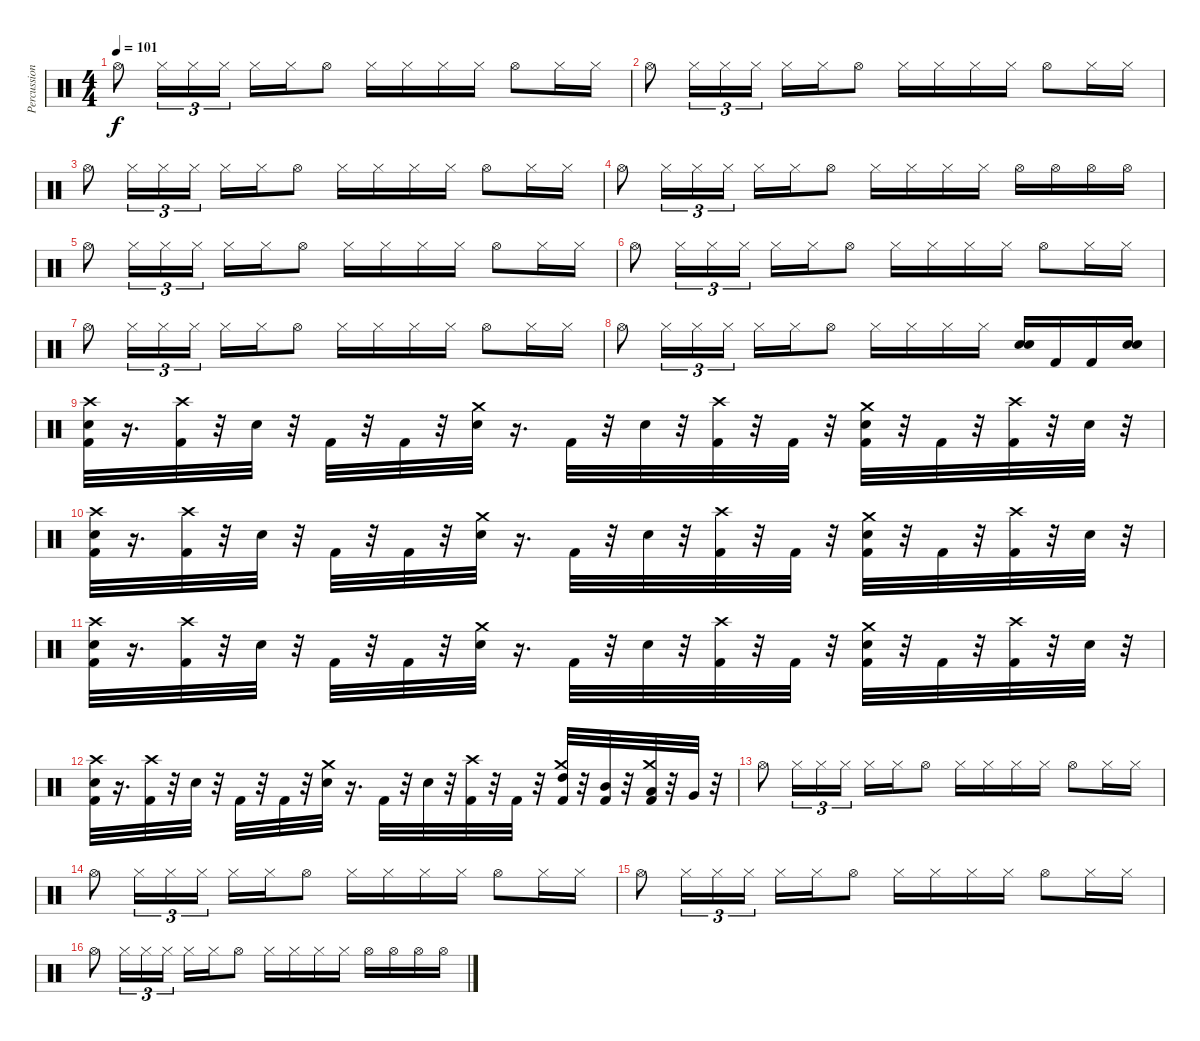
\track ("Percussion" "Percussion") {instrument percussion}
\staff {score}
\articulation defaults
\ts (4 4)
\tempo 101
\clef neutral
\ks c "Hi-Hat (open)".8{dy f} "Hi-Hat (closed)".16{tu (3 2)} "Hi-Hat (closed)".16{tu (3 2)} "Hi-Hat (closed)".16{tu (3 2)} "Hi-Hat (closed)".16 "Hi-Hat (closed)".16 "Hi-Hat (open)".8 "Hi-Hat (closed)".16 "Hi-Hat (closed)".16 "Hi-Hat (closed)".16 "Hi-Hat (closed)".16 "Hi-Hat (open)".8 "Hi-Hat (closed)".16 "Hi-Hat (closed)".16
|
"Hi-Hat (open)".8 "Hi-Hat (closed)".16{tu (3 2)} "Hi-Hat (closed)".16{tu (3 2)} "Hi-Hat (closed)".16{tu (3 2)} "Hi-Hat (closed)".16 "Hi-Hat (closed)".16 "Hi-Hat (open)".8 "Hi-Hat (closed)".16 "Hi-Hat (closed)".16 "Hi-Hat (closed)".16 "Hi-Hat (closed)".16 "Hi-Hat (open)".8 "Hi-Hat (closed)".16 "Hi-Hat (closed)".16 |
"Hi-Hat (open)".8 "Hi-Hat (closed)".16{tu (3 2)} "Hi-Hat (closed)".16{tu (3 2)} "Hi-Hat (closed)".16{tu (3 2)} "Hi-Hat (closed)".16 "Hi-Hat (closed)".16 "Hi-Hat (open)".8 "Hi-Hat (closed)".16 "Hi-Hat (closed)".16 "Hi-Hat (closed)".16 "Hi-Hat (closed)".16 "Hi-Hat (open)".8 "Hi-Hat (closed)".16 "Hi-Hat (closed)".16 |
"Hi-Hat (open)".8 "Hi-Hat (closed)".16{tu (3 2)} "Hi-Hat (closed)".16{tu (3 2)} "Hi-Hat (closed)".16{tu (3 2)} "Hi-Hat (closed)".16 "Hi-Hat (closed)".16 "Hi-Hat (open)".8 "Hi-Hat (closed)".16 "Hi-Hat (closed)".16 "Hi-Hat (closed)".16 "Hi-Hat (closed)".16 "Hi-Hat (open)".16 "Hi-Hat (open)".16 "Hi-Hat (open)".16 "Hi-Hat (open)".16 |
"Hi-Hat (open)".8 "Hi-Hat (closed)".16{tu (3 2)} "Hi-Hat (closed)".16{tu (3 2)} "Hi-Hat (closed)".16{tu (3 2)} "Hi-Hat (closed)".16 "Hi-Hat (closed)".16 "Hi-Hat (open)".8 "Hi-Hat (closed)".16 "Hi-Hat (closed)".16 "Hi-Hat (closed)".16 "Hi-Hat (closed)".16 "Hi-Hat (open)".8 "Hi-Hat (closed)".16 "Hi-Hat (closed)".16 |
"Hi-Hat (open)".8 "Hi-Hat (closed)".16{tu (3 2)} "Hi-Hat (closed)".16{tu (3 2)} "Hi-Hat (closed)".16{tu (3 2)} "Hi-Hat (closed)".16 "Hi-Hat (closed)".16 "Hi-Hat (open)".8 "Hi-Hat (closed)".16 "Hi-Hat (closed)".16 "Hi-Hat (closed)".16 "Hi-Hat (closed)".16 "Hi-Hat (open)".8 "Hi-Hat (closed)".16 "Hi-Hat (closed)".16 |
"Hi-Hat (open)".8 "Hi-Hat (closed)".16{tu (3 2)} "Hi-Hat (closed)".16{tu (3 2)} "Hi-Hat (closed)".16{tu (3 2)} "Hi-Hat (closed)".16 "Hi-Hat (closed)".16 "Hi-Hat (open)".8 "Hi-Hat (closed)".16 "Hi-Hat (closed)".16 "Hi-Hat (closed)".16 "Hi-Hat (closed)".16 "Hi-Hat (open)".8 "Hi-Hat (closed)".16 "Hi-Hat (closed)".16 |
"Hi-Hat (open)".8 "Hi-Hat (closed)".16{tu (3 2)} "Hi-Hat (closed)".16{tu (3 2)} "Hi-Hat (closed)".16{tu (3 2)} "Hi-Hat (closed)".16 "Hi-Hat (closed)".16 "Hi-Hat (open)".8 "Hi-Hat (closed)".16 "Hi-Hat (closed)".16 "Hi-Hat (closed)".16 "Hi-Hat (closed)".16 ("Snare (hit) 2" "Electric Snare (hit)").16 "Kick (hit) 2".16 "Kick (hit) 2".16 ("Snare (hit) 2" "Electric Snare (hit)").16 |
("Crash high (hit)" "Snare (hit) 2" "Kick (hit) 2").32 r.16{d} ("Crash high (hit)" "Kick (hit) 2").32 r.32 "Snare (hit) 2".32 r.32 "Kick (hit) 2".32 r.32 "Kick (hit) 2".32 r.32 ("Crash medium (hit)" "Snare (hit) 2").32 r.16{d} "Kick (hit) 2".32 r.32 "Snare (hit) 2".32 r.32 ("Crash high (hit)" "Kick (hit) 2").32 r.32 "Kick (hit) 2".32 r.32 ("Crash medium (hit)" "Snare (hit) 2" "Kick (hit) 2").32 r.32 "Kick (hit) 2".32 r.32 ("Crash high (hit)" "Kick (hit) 2").32 r.32 "Snare (hit) 2".32 r.32 |
("Crash high (hit)" "Snare (hit) 2" "Kick (hit) 2").32 r.16{d} ("Crash high (hit)" "Kick (hit) 2").32 r.32 "Snare (hit) 2".32 r.32 "Kick (hit) 2".32 r.32 "Kick (hit) 2".32 r.32 ("Crash medium (hit)" "Snare (hit) 2").32 r.16{d} "Kick (hit) 2".32 r.32 "Snare (hit) 2".32 r.32 ("Crash high (hit)" "Kick (hit) 2").32 r.32 "Kick (hit) 2".32 r.32 ("Crash medium (hit)" "Snare (hit) 2" "Kick (hit) 2").32 r.32 "Kick (hit) 2".32 r.32 ("Crash high (hit)" "Kick (hit) 2").32 r.32 "Snare (hit) 2".32 r.32 |
("Crash high (hit)" "Snare (hit) 2" "Kick (hit) 2").32 r.16{d} ("Crash high (hit)" "Kick (hit) 2").32 r.32 "Snare (hit) 2".32 r.32 "Kick (hit) 2".32 r.32 "Kick (hit) 2".32 r.32 ("Crash medium (hit)" "Snare (hit) 2").32 r.16{d} "Kick (hit) 2".32 r.32 "Snare (hit) 2".32 r.32 ("Crash high (hit)" "Kick (hit) 2").32 r.32 "Kick (hit) 2".32 r.32 ("Crash medium (hit)" "Snare (hit) 2" "Kick (hit) 2").32 r.32 "Kick (hit) 2".32 r.32 ("Crash high (hit)" "Kick (hit) 2").32 r.32 "Snare (hit) 2".32 r.32 |
("Crash high (hit)" "Snare (hit) 2" "Kick (hit) 2").32 r.16{d} ("Crash high (hit)" "Kick (hit) 2").32 r.32 "Snare (hit) 2".32 r.32 "Kick (hit) 2".32 r.32 "Kick (hit) 2".32 r.32 ("Crash medium (hit)" "Snare (hit) 2").32 r.16{d} "Kick (hit) 2".32 r.32 "Snare (hit) 2".32 r.32 ("Crash high (hit)" "Kick (hit) 2").32 r.32 "Kick (hit) 2".32 r.32 ("Crash medium (hit)" "High Tom (hit)" "Kick (hit) 2").32 r.32 ("Mid Tom (hit)" "Kick (hit) 2").32 r.32 ("Crash medium (hit)" "Low Tom (hit)" "Kick (hit) 2").32 r.32 "Very Low Tom (hit)".32 r.32 |
"Hi-Hat (open)".8 "Hi-Hat (closed)".16{tu (3 2)} "Hi-Hat (closed)".16{tu (3 2)} "Hi-Hat (closed)".16{tu (3 2)} "Hi-Hat (closed)".16 "Hi-Hat (closed)".16 "Hi-Hat (open)".8 "Hi-Hat (closed)".16 "Hi-Hat (closed)".16 "Hi-Hat (closed)".16 "Hi-Hat (closed)".16 "Hi-Hat (open)".8 "Hi-Hat (closed)".16 "Hi-Hat (closed)".16 |
"Hi-Hat (open)".8 "Hi-Hat (closed)".16{tu (3 2)} "Hi-Hat (closed)".16{tu (3 2)} "Hi-Hat (closed)".16{tu (3 2)} "Hi-Hat (closed)".16 "Hi-Hat (closed)".16 "Hi-Hat (open)".8 "Hi-Hat (closed)".16 "Hi-Hat (closed)".16 "Hi-Hat (closed)".16 "Hi-Hat (closed)".16 "Hi-Hat (open)".8 "Hi-Hat (closed)".16 "Hi-Hat (closed)".16 |
"Hi-Hat (open)".8 "Hi-Hat (closed)".16{tu (3 2)} "Hi-Hat (closed)".16{tu (3 2)} "Hi-Hat (closed)".16{tu (3 2)} "Hi-Hat (closed)".16 "Hi-Hat (closed)".16 "Hi-Hat (open)".8 "Hi-Hat (closed)".16 "Hi-Hat (closed)".16 "Hi-Hat (closed)".16 "Hi-Hat (closed)".16 "Hi-Hat (open)".8 "Hi-Hat (closed)".16 "Hi-Hat (closed)".16 |
"Hi-Hat (open)".8 "Hi-Hat (closed)".16{tu (3 2)} "Hi-Hat (closed)".16{tu (3 2)} "Hi-Hat (closed)".16{tu (3 2)} "Hi-Hat (closed)".16 "Hi-Hat (closed)".16 "Hi-Hat (open)".8 "Hi-Hat (closed)".16 "Hi-Hat (closed)".16 "Hi-Hat (closed)".16 "Hi-Hat (closed)".16 "Hi-Hat (open)".16 "Hi-Hat (open)".16 "Hi-Hat (open)".16 "Hi-Hat (open)".16
